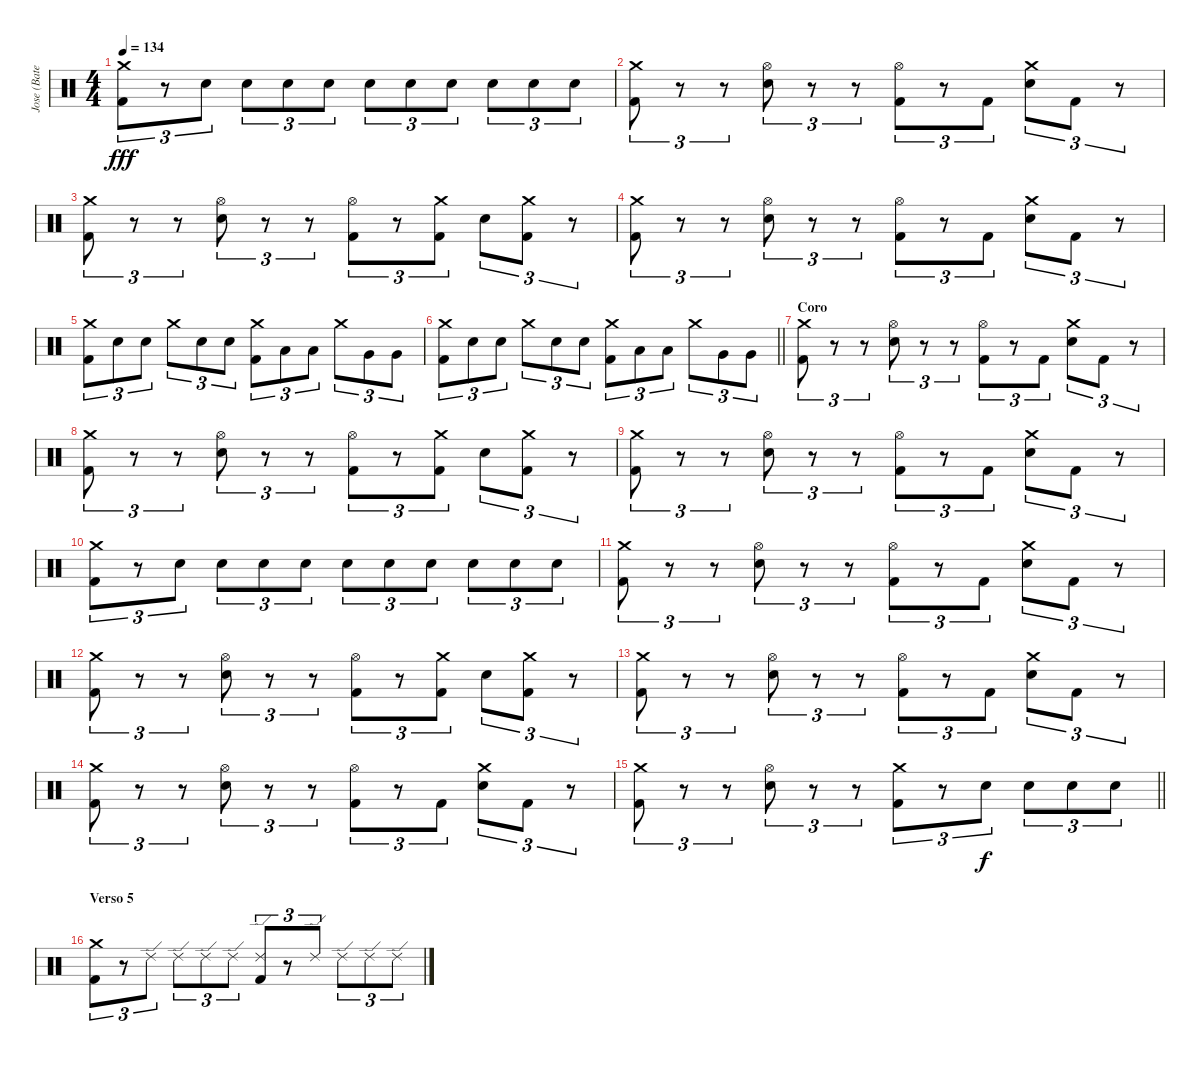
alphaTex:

\track ("Jose (Bateria)" "Jose (Bate") {instrument percussion}
\staff {score}
\articulation defaults
\ts (4 4)
\tempo 134
\clef neutral
\ks c
("Crash medium (hit)" "Kick (hit) 2").8{tu (3 2) dy fff} r.8{tu (3 2)} "Snare (hit) 2".8{tu (3 2)} "Snare (hit) 2".8{tu (3 2)} "Snare (hit) 2".8{tu (3 2)} "Snare (hit) 2".8{tu (3 2)} "Snare (hit) 2".8{tu (3 2)} "Snare (hit) 2".8{tu (3 2)} "Snare (hit) 2".8{tu (3 2)} "Snare (hit) 2".8{tu (3 2)} "Snare (hit) 2".8{tu (3 2)} "Snare (hit) 2".8{tu (3 2)} |
("Crash medium (hit)" "Kick (hit) 2").8{tu (3 2)} r.8{tu (3 2)} r.8{tu (3 2)} ("Hi-Hat (open)" "Snare (hit) 2").8{tu (3 2)} r.8{tu (3 2)} r.8{tu (3 2)} ("Hi-Hat (open)" "Kick (hit) 2").8{tu (3 2)} r.8{tu (3 2)} "Kick (hit) 2".8{tu (3 2)} ("Crash medium (hit)" "Snare (hit) 2").8{tu (3 2)} "Kick (hit) 2".8{tu (3 2)} r.8{tu (3 2)} |
("Crash medium (hit)" "Kick (hit) 2").8{tu (3 2)} r.8{tu (3 2)} r.8{tu (3 2)} ("Hi-Hat (open)" "Snare (hit) 2").8{tu (3 2)} r.8{tu (3 2)} r.8{tu (3 2)} ("Hi-Hat (open)" "Kick (hit) 2").8{tu (3 2)} r.8{tu (3 2)} ("Crash medium (hit)" "Kick (hit) 2").8{tu (3 2)} "Snare (hit) 2".8{tu (3 2)} ("Crash medium (hit)" "Kick (hit) 2").8{tu (3 2)} r.8{tu (3 2)} |
("Crash medium (hit)" "Kick (hit) 2").8{tu (3 2)} r.8{tu (3 2)} r.8{tu (3 2)} ("Hi-Hat (open)" "Snare (hit) 2").8{tu (3 2)} r.8{tu (3 2)} r.8{tu (3 2)} ("Hi-Hat (open)" "Kick (hit) 2").8{tu (3 2)} r.8{tu (3 2)} "Kick (hit) 2".8{tu (3 2)} ("Crash medium (hit)" "Snare (hit) 2").8{tu (3 2)} "Kick (hit) 2".8{tu (3 2)} r.8{tu (3 2)} |
("Crash medium (hit)" "Kick (hit) 2").8{tu (3 2)} "Snare (hit) 2".8{tu (3 2)} "Snare (hit) 2".8{tu (3 2)} "Crash medium (hit)".8{tu (3 2)} "Snare (hit) 2".8{tu (3 2)} "Snare (hit) 2".8{tu (3 2)} ("Crash medium (hit)" "Kick (hit) 2").8{tu (3 2)} "Low Tom (hit)".8{tu (3 2)} "Low Tom (hit)".8{tu (3 2)} "Crash medium (hit)".8{tu (3 2)} "Very Low Tom (hit)".8{tu (3 2)} "Very Low Tom (hit)".8{tu (3 2)} |
\barLineRight lightlight
("Crash medium (hit)" "Kick (hit) 2").8{tu (3 2)} "Snare (hit) 2".8{tu (3 2)} "Snare (hit) 2".8{tu (3 2)} "Crash medium (hit)".8{tu (3 2)} "Snare (hit) 2".8{tu (3 2)} "Snare (hit) 2".8{tu (3 2)} ("Crash medium (hit)" "Kick (hit) 2").8{tu (3 2)} "Low Tom (hit)".8{tu (3 2)} "Low Tom (hit)".8{tu (3 2)} "Crash medium (hit)".8{tu (3 2)} "Very Low Tom (hit)".8{tu (3 2)} "Very Low Tom (hit)".8{tu (3 2)} |
\section ("" "Coro")
("Crash medium (hit)" "Kick (hit) 2").8{tu (3 2)} r.8{tu (3 2)} r.8{tu (3 2)} ("Hi-Hat (open)" "Snare (hit) 2").8{tu (3 2)} r.8{tu (3 2)} r.8{tu (3 2)} ("Hi-Hat (open)" "Kick (hit) 2").8{tu (3 2)} r.8{tu (3 2)} "Kick (hit) 2".8{tu (3 2)} ("Crash medium (hit)" "Snare (hit) 2").8{tu (3 2)} "Kick (hit) 2".8{tu (3 2)} r.8{tu (3 2)} |
("Crash medium (hit)" "Kick (hit) 2").8{tu (3 2)} r.8{tu (3 2)} r.8{tu (3 2)} ("Hi-Hat (open)" "Snare (hit) 2").8{tu (3 2)} r.8{tu (3 2)} r.8{tu (3 2)} ("Hi-Hat (open)" "Kick (hit) 2").8{tu (3 2)} r.8{tu (3 2)} ("Crash medium (hit)" "Kick (hit) 2").8{tu (3 2)} "Snare (hit) 2".8{tu (3 2)} ("Crash medium (hit)" "Kick (hit) 2").8{tu (3 2)} r.8{tu (3 2)} |
("Crash medium (hit)" "Kick (hit) 2").8{tu (3 2)} r.8{tu (3 2)} r.8{tu (3 2)} ("Hi-Hat (open)" "Snare (hit) 2").8{tu (3 2)} r.8{tu (3 2)} r.8{tu (3 2)} ("Hi-Hat (open)" "Kick (hit) 2").8{tu (3 2)} r.8{tu (3 2)} "Kick (hit) 2".8{tu (3 2)} ("Crash medium (hit)" "Snare (hit) 2").8{tu (3 2)} "Kick (hit) 2".8{tu (3 2)} r.8{tu (3 2)} |
("Crash medium (hit)" "Kick (hit) 2").8{tu (3 2)} r.8{tu (3 2)} "Snare (hit) 2".8{tu (3 2)} "Snare (hit) 2".8{tu (3 2)} "Snare (hit) 2".8{tu (3 2)} "Snare (hit) 2".8{tu (3 2)} "Snare (hit) 2".8{tu (3 2)} "Snare (hit) 2".8{tu (3 2)} "Snare (hit) 2".8{tu (3 2)} "Snare (hit) 2".8{tu (3 2)} "Snare (hit) 2".8{tu (3 2)} "Snare (hit) 2".8{tu (3 2)} |
("Crash medium (hit)" "Kick (hit) 2").8{tu (3 2)} r.8{tu (3 2)} r.8{tu (3 2)} ("Hi-Hat (open)" "Snare (hit) 2").8{tu (3 2)} r.8{tu (3 2)} r.8{tu (3 2)} ("Hi-Hat (open)" "Kick (hit) 2").8{tu (3 2)} r.8{tu (3 2)} "Kick (hit) 2".8{tu (3 2)} ("Crash medium (hit)" "Snare (hit) 2").8{tu (3 2)} "Kick (hit) 2".8{tu (3 2)} r.8{tu (3 2)} |
("Crash medium (hit)" "Kick (hit) 2").8{tu (3 2)} r.8{tu (3 2)} r.8{tu (3 2)} ("Hi-Hat (open)" "Snare (hit) 2").8{tu (3 2)} r.8{tu (3 2)} r.8{tu (3 2)} ("Hi-Hat (open)" "Kick (hit) 2").8{tu (3 2)} r.8{tu (3 2)} ("Crash medium (hit)" "Kick (hit) 2").8{tu (3 2)} "Snare (hit) 2".8{tu (3 2)} ("Crash medium (hit)" "Kick (hit) 2").8{tu (3 2)} r.8{tu (3 2)} |
("Crash medium (hit)" "Kick (hit) 2").8{tu (3 2)} r.8{tu (3 2)} r.8{tu (3 2)} ("Hi-Hat (open)" "Snare (hit) 2").8{tu (3 2)} r.8{tu (3 2)} r.8{tu (3 2)} ("Hi-Hat (open)" "Kick (hit) 2").8{tu (3 2)} r.8{tu (3 2)} "Kick (hit) 2".8{tu (3 2)} ("Crash medium (hit)" "Snare (hit) 2").8{tu (3 2)} "Kick (hit) 2".8{tu (3 2)} r.8{tu (3 2)} |
("Crash medium (hit)" "Kick (hit) 2").8{tu (3 2)} r.8{tu (3 2)} r.8{tu (3 2)} ("Hi-Hat (open)" "Snare (hit) 2").8{tu (3 2)} r.8{tu (3 2)} r.8{tu (3 2)} ("Hi-Hat (open)" "Kick (hit) 2").8{tu (3 2)} r.8{tu (3 2)} "Kick (hit) 2".8{tu (3 2)} ("Crash medium (hit)" "Snare (hit) 2").8{tu (3 2)} "Kick (hit) 2".8{tu (3 2)} r.8{tu (3 2)} |
\barLineRight lightlight
("Crash medium (hit)" "Kick (hit) 2").8{tu (3 2)} r.8{tu (3 2)} r.8{tu (3 2)} ("Hi-Hat (open)" "Snare (hit) 2").8{tu (3 2)} r.8{tu (3 2)} r.8{tu (3 2)} ("Crash medium (hit)" "Kick (hit) 2").8{tu (3 2)} r.8{tu (3 2)} "Snare (hit) 2".8{tu (3 2) dy f} "Snare (hit) 2".8{tu (3 2)} "Snare (hit) 2".8{tu (3 2)} "Snare (hit) 2".8{tu (3 2)} |
\section ("" "Verso 5")
("Crash medium (hit)" "Kick (hit) 2").8{tu (3 2)} r.8{tu (3 2)} "Ride (edge) 2".8{tu (3 2)} "Ride (edge) 2".8{tu (3 2)} "Ride (edge) 2".8{tu (3 2)} "Ride (edge) 2".8{tu (3 2)} ("Ride (edge) 2" "Kick (hit) 2").8{tu (3 2)} r.8{tu (3 2)} "Ride (edge) 2".8{tu (3 2)} "Ride (edge) 2".8{tu (3 2)} "Ride (edge) 2".8{tu (3 2)} "Ride (edge) 2".8{tu (3 2)}
